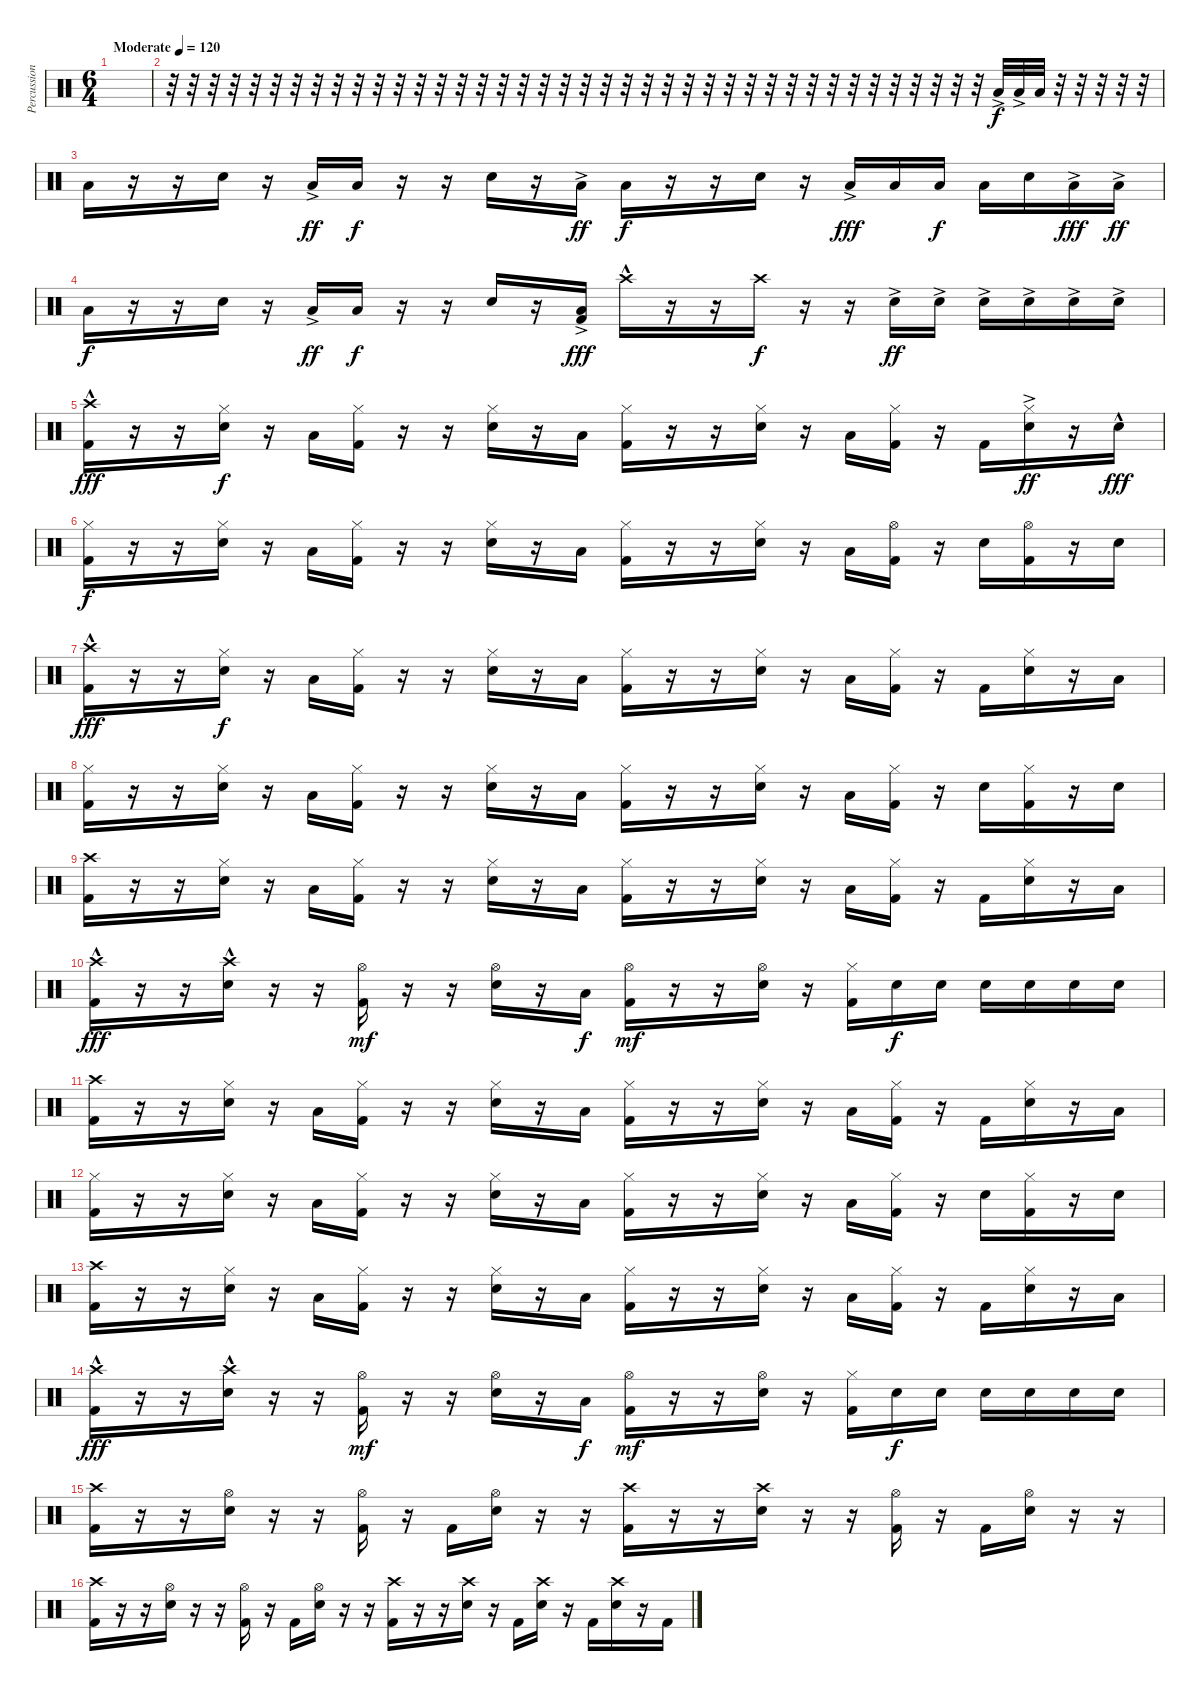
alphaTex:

\track ("Percussion" "Percussion") {instrument percussion}
\staff {score}
\articulation defaults
\ts (6 4)
\tempo (120 "Moderate")
\clef neutral
\ks c
|
r.32 r.32 r.32 r.32 r.32 r.32 r.32 r.32 r.32 r.32 r.32 r.32 r.32 r.32 r.32 r.32 r.32 r.32 r.32 r.32 r.32 r.32 r.32 r.32 r.32 r.32 r.32 r.32 r.32 r.32 r.32 r.32 r.32 r.32 r.32 r.32 r.32 r.32 r.32 r.32 "Low Floor Tom (hit)"{ac}.32 "Low Floor Tom (hit)"{ac}.32 "Low Floor Tom (hit)".32 r.32 r.32 r.32 r.32 r.32 |
"Low Floor Tom (hit)".16{dy f} r.16 r.16 "Electric Snare (hit)".16 r.16 "Low Floor Tom (hit)"{ac}.16{dy ff} "Low Floor Tom (hit)".16{dy f} r.16 r.16 "Electric Snare (hit)".16 r.16 "Low Floor Tom (hit)"{ac}.16{dy ff} "Low Floor Tom (hit)".16{dy f} r.16 r.16 "Electric Snare (hit)".16 r.16 "Low Floor Tom (hit)"{ac}.16{dy fff} "Low Floor Tom (hit)".16 "Low Floor Tom (hit)".16{dy f} "Low Floor Tom (hit)".16 "Electric Snare (hit)".16 "Low Floor Tom (hit)"{ac}.16{dy fff} "Low Floor Tom (hit)"{ac}.16{dy ff} |
"Low Floor Tom (hit)".16{dy f} r.16 r.16 "Electric Snare (hit)".16 r.16 "Low Floor Tom (hit)"{ac}.16{dy ff} "Low Floor Tom (hit)".16{dy f} r.16 r.16 "Electric Snare (hit)".16 r.16 ("Low Floor Tom (hit)" "Kick (hit) 2"{ac}).16{dy fff} "Crash high (hit)"{hac}.16 r.16 r.16 "Crash high (hit)".16{dy f} r.16 r.16 "Electric Snare (hit)"{ac}.16{dy ff} "Electric Snare (hit)"{ac}.16 "Electric Snare (hit)"{ac}.16 "Electric Snare (hit)"{ac}.16 "Electric Snare (hit)"{ac}.16 "Electric Snare (hit)"{ac}.16 |
("Kick (hit) 2" "Crash high (hit)"{hac}).16{dy fff} r.16 r.16 ("Electric Snare (hit)" "Hi-Hat (closed)").16{dy f} r.16 "Low Floor Tom (hit)".16 ("Kick (hit) 2" "Hi-Hat (closed)").16 r.16 r.16 ("Electric Snare (hit)" "Hi-Hat (closed)").16 r.16 "Low Floor Tom (hit)".16 ("Kick (hit) 2" "Hi-Hat (closed)").16 r.16 r.16 ("Electric Snare (hit)" "Hi-Hat (closed)").16 r.16 "Low Floor Tom (hit)".16 ("Kick (hit) 2" "Hi-Hat (closed)").16 r.16 "Kick (hit) 2".16 ("Electric Snare (hit)"{ac} "Hi-Hat (closed)").16{dy ff} r.16 "Electric Snare (hit)"{hac}.16{dy fff} |
("Kick (hit) 2" "Hi-Hat (closed)").16{dy f} r.16 r.16 ("Electric Snare (hit)" "Hi-Hat (closed)").16 r.16 "Low Floor Tom (hit)".16 ("Kick (hit) 2" "Hi-Hat (closed)").16 r.16 r.16 ("Electric Snare (hit)" "Hi-Hat (closed)").16 r.16 "Low Floor Tom (hit)".16 ("Kick (hit) 2" "Hi-Hat (closed)").16 r.16 r.16 ("Electric Snare (hit)" "Hi-Hat (closed)").16 r.16 "Low Floor Tom (hit)".16 ("Kick (hit) 2" "Hi-Hat (open)").16 r.16 "Electric Snare (hit)".16 ("Kick (hit) 2" "Hi-Hat (open)").16 r.16 "Electric Snare (hit)".16 |
("Kick (hit) 2" "Crash high (hit)"{hac}).16{dy fff} r.16 r.16 ("Electric Snare (hit)" "Hi-Hat (closed)").16{dy f} r.16 "Low Floor Tom (hit)".16 ("Kick (hit) 2" "Hi-Hat (closed)").16 r.16 r.16 ("Electric Snare (hit)" "Hi-Hat (closed)").16 r.16 "Low Floor Tom (hit)".16 ("Kick (hit) 2" "Hi-Hat (closed)").16 r.16 r.16 ("Electric Snare (hit)" "Hi-Hat (closed)").16 r.16 "Low Floor Tom (hit)".16 ("Kick (hit) 2" "Hi-Hat (closed)").16 r.16 "Kick (hit) 2".16 ("Electric Snare (hit)" "Hi-Hat (closed)").16 r.16 "Low Floor Tom (hit)".16 |
("Kick (hit) 2" "Hi-Hat (closed)").16 r.16 r.16 ("Electric Snare (hit)" "Hi-Hat (closed)").16 r.16 "Low Floor Tom (hit)".16 ("Kick (hit) 2" "Hi-Hat (closed)").16 r.16 r.16 ("Electric Snare (hit)" "Hi-Hat (closed)").16 r.16 "Low Floor Tom (hit)".16 ("Kick (hit) 2" "Hi-Hat (closed)").16 r.16 r.16 ("Electric Snare (hit)" "Hi-Hat (closed)").16 r.16 "Low Floor Tom (hit)".16 ("Kick (hit) 2" "Hi-Hat (closed)").16 r.16 "Electric Snare (hit)".16 ("Kick (hit) 2" "Hi-Hat (closed)").16 r.16 "Electric Snare (hit)".16 |
("Kick (hit) 2" "Crash high (hit)").16 r.16 r.16 ("Electric Snare (hit)" "Hi-Hat (closed)").16 r.16 "Low Floor Tom (hit)".16 ("Kick (hit) 2" "Hi-Hat (closed)").16 r.16 r.16 ("Electric Snare (hit)" "Hi-Hat (closed)").16 r.16 "Low Floor Tom (hit)".16 ("Kick (hit) 2" "Hi-Hat (closed)").16 r.16 r.16 ("Electric Snare (hit)" "Hi-Hat (closed)").16 r.16 "Low Floor Tom (hit)".16 ("Kick (hit) 2" "Hi-Hat (closed)").16 r.16 "Kick (hit) 2".16 ("Electric Snare (hit)" "Hi-Hat (closed)").16 r.16 "Low Floor Tom (hit)".16 |
("Kick (hit) 2" "Crash high (hit)"{hac}).16{dy fff} r.16 r.16 ("Electric Snare (hit)" "Crash high (hit)"{hac}).16 r.16 r.16 ("Kick (hit) 2" "Hi-Hat (open)").16{dy mf} r.16 r.16 ("Electric Snare (hit)" "Hi-Hat (open)").16 r.16 "Low Floor Tom (hit)".16{dy f} ("Kick (hit) 2" "Hi-Hat (open)").16{dy mf} r.16 r.16 ("Electric Snare (hit)" "Hi-Hat (open)").16 r.16 ("Kick (hit) 2" "Hi-Hat (closed)").16 "Electric Snare (hit)".16{dy f} "Electric Snare (hit)".16 "Electric Snare (hit)".16 "Electric Snare (hit)".16 "Electric Snare (hit)".16 "Electric Snare (hit)".16 |
("Kick (hit) 2" "Crash high (hit)").16 r.16 r.16 ("Electric Snare (hit)" "Hi-Hat (closed)").16 r.16 "Low Floor Tom (hit)".16 ("Kick (hit) 2" "Hi-Hat (closed)").16 r.16 r.16 ("Electric Snare (hit)" "Hi-Hat (closed)").16 r.16 "Low Floor Tom (hit)".16 ("Kick (hit) 2" "Hi-Hat (closed)").16 r.16 r.16 ("Electric Snare (hit)" "Hi-Hat (closed)").16 r.16 "Low Floor Tom (hit)".16 ("Kick (hit) 2" "Hi-Hat (closed)").16 r.16 "Kick (hit) 2".16 ("Electric Snare (hit)" "Hi-Hat (closed)").16 r.16 "Low Floor Tom (hit)".16 |
("Kick (hit) 2" "Hi-Hat (closed)").16 r.16 r.16 ("Electric Snare (hit)" "Hi-Hat (closed)").16 r.16 "Low Floor Tom (hit)".16 ("Kick (hit) 2" "Hi-Hat (closed)").16 r.16 r.16 ("Electric Snare (hit)" "Hi-Hat (closed)").16 r.16 "Low Floor Tom (hit)".16 ("Kick (hit) 2" "Hi-Hat (closed)").16 r.16 r.16 ("Electric Snare (hit)" "Hi-Hat (closed)").16 r.16 "Low Floor Tom (hit)".16 ("Kick (hit) 2" "Hi-Hat (closed)").16 r.16 "Electric Snare (hit)".16 ("Kick (hit) 2" "Hi-Hat (closed)").16 r.16 "Electric Snare (hit)".16 |
("Kick (hit) 2" "Crash high (hit)").16 r.16 r.16 ("Electric Snare (hit)" "Hi-Hat (closed)").16 r.16 "Low Floor Tom (hit)".16 ("Kick (hit) 2" "Hi-Hat (closed)").16 r.16 r.16 ("Electric Snare (hit)" "Hi-Hat (closed)").16 r.16 "Low Floor Tom (hit)".16 ("Kick (hit) 2" "Hi-Hat (closed)").16 r.16 r.16 ("Electric Snare (hit)" "Hi-Hat (closed)").16 r.16 "Low Floor Tom (hit)".16 ("Kick (hit) 2" "Hi-Hat (closed)").16 r.16 "Kick (hit) 2".16 ("Electric Snare (hit)" "Hi-Hat (closed)").16 r.16 "Low Floor Tom (hit)".16 |
("Kick (hit) 2" "Crash high (hit)"{hac}).16{dy fff} r.16 r.16 ("Electric Snare (hit)" "Crash high (hit)"{hac}).16 r.16 r.16 ("Kick (hit) 2" "Hi-Hat (open)").16{dy mf} r.16 r.16 ("Electric Snare (hit)" "Hi-Hat (open)").16 r.16 "Low Floor Tom (hit)".16{dy f} ("Kick (hit) 2" "Hi-Hat (open)").16{dy mf} r.16 r.16 ("Electric Snare (hit)" "Hi-Hat (open)").16 r.16 ("Kick (hit) 2" "Hi-Hat (closed)").16 "Electric Snare (hit)".16{dy f} "Electric Snare (hit)".16 "Electric Snare (hit)".16 "Electric Snare (hit)".16 "Electric Snare (hit)".16 "Electric Snare (hit)".16 |
("Kick (hit) 2" "Crash high (hit)").16 r.16 r.16 ("Electric Snare (hit)" "Hi-Hat (open)").16 r.16 r.16 ("Kick (hit) 2" "Hi-Hat (open)").16 r.16 "Kick (hit) 2".16 ("Electric Snare (hit)" "Hi-Hat (open)").16 r.16 r.16 ("Kick (hit) 2" "Crash high (hit)").16 r.16 r.16 ("Electric Snare (hit)" "Crash high (hit)").16 r.16 r.16 ("Kick (hit) 2" "Hi-Hat (open)").16 r.16 "Kick (hit) 2".16 ("Electric Snare (hit)" "Hi-Hat (open)").16 r.16 r.16 |
("Kick (hit) 2" "Crash high (hit)").16 r.16 r.16 ("Electric Snare (hit)" "Hi-Hat (open)").16 r.16 r.16 ("Kick (hit) 2" "Hi-Hat (open)").16 r.16 "Kick (hit) 2".16 ("Electric Snare (hit)" "Hi-Hat (open)").16 r.16 r.16 ("Kick (hit) 2" "Crash high (hit)").16 r.16 r.16 ("Electric Snare (hit)" "Crash high (hit)").16 r.16 "Kick (hit) 2".16 ("Electric Snare (hit)" "Crash high (hit)").16 r.16 "Kick (hit) 2".16 ("Electric Snare (hit)" "Crash high (hit)").16 r.16 "Kick (hit) 2".16
